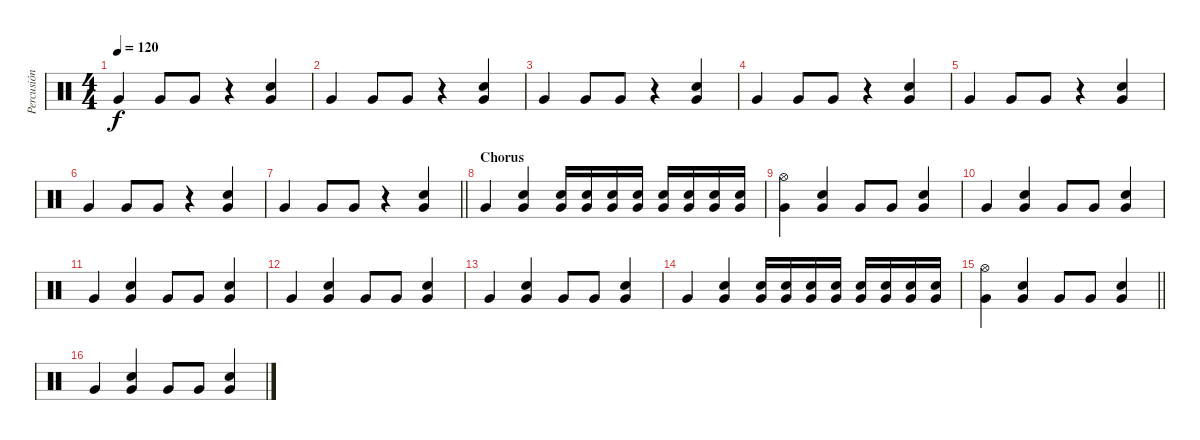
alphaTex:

\track ("Percusión" "Percusión") {instrument percussion}
\staff {score}
\articulation defaults
\ts (4 4)
\tempo 120
\clef neutral
\ks c "Very Low Tom (hit)".4{dy f} "Very Low Tom (hit)".8 "Very Low Tom (hit)".8
r.4 ("Very Low Tom (hit)" "Electric Snare (hit)").4 |
"Very Low Tom (hit)".4 "Very Low Tom (hit)".8 "Very Low Tom (hit)".8 r.4 ("Very Low Tom (hit)" "Electric Snare (hit)").4 |
"Very Low Tom (hit)".4 "Very Low Tom (hit)".8 "Very Low Tom (hit)".8 r.4 ("Very Low Tom (hit)" "Electric Snare (hit)").4 |
"Very Low Tom (hit)".4 "Very Low Tom (hit)".8 "Very Low Tom (hit)".8 r.4 ("Very Low Tom (hit)" "Electric Snare (hit)").4 |
"Very Low Tom (hit)".4 "Very Low Tom (hit)".8 "Very Low Tom (hit)".8 r.4 ("Very Low Tom (hit)" "Electric Snare (hit)").4 |
"Very Low Tom (hit)".4 "Very Low Tom (hit)".8 "Very Low Tom (hit)".8 r.4 ("Very Low Tom (hit)" "Electric Snare (hit)").4 |
\barLineRight lightlight "Very Low Tom (hit)".4 "Very Low Tom (hit)".8 "Very Low Tom (hit)".8
r.4 ("Very Low Tom (hit)" "Electric Snare (hit)").4 |
\section ("" "Chorus")
"Very Low Tom (hit)".4 ("Electric Snare (hit)" "Very Low Tom (hit)").4 ("Electric Snare (hit)" "Very Low Tom (hit)").16 ("Electric Snare (hit)" "Very Low Tom (hit)").16 ("Electric Snare (hit)" "Very Low Tom (hit)").16 ("Electric Snare (hit)" "Very Low Tom (hit)").16 ("Electric Snare (hit)" "Very Low Tom (hit)").16 ("Electric Snare (hit)" "Very Low Tom (hit)").16 ("Electric Snare (hit)" "Very Low Tom (hit)").16 ("Electric Snare (hit)" "Very Low Tom (hit)").16 |
("Very Low Tom (hit)" "Hi-Hat (open)").4 ("Electric Snare (hit)" "Very Low Tom (hit)").4 "Very Low Tom (hit)".8 "Very Low Tom (hit)".8 ("Electric Snare (hit)" "Very Low Tom (hit)").4 |
"Very Low Tom (hit)".4 ("Electric Snare (hit)" "Very Low Tom (hit)").4 "Very Low Tom (hit)".8 "Very Low Tom (hit)".8 ("Electric Snare (hit)" "Very Low Tom (hit)").4 |
"Very Low Tom (hit)".4 ("Electric Snare (hit)" "Very Low Tom (hit)").4 "Very Low Tom (hit)".8 "Very Low Tom (hit)".8 ("Electric Snare (hit)" "Very Low Tom (hit)").4 |
"Very Low Tom (hit)".4 ("Electric Snare (hit)" "Very Low Tom (hit)").4 "Very Low Tom (hit)".8 "Very Low Tom (hit)".8 ("Electric Snare (hit)" "Very Low Tom (hit)").4 |
"Very Low Tom (hit)".4 ("Electric Snare (hit)" "Very Low Tom (hit)").4 "Very Low Tom (hit)".8 "Very Low Tom (hit)".8 ("Electric Snare (hit)" "Very Low Tom (hit)").4 |
"Very Low Tom (hit)".4 ("Electric Snare (hit)" "Very Low Tom (hit)").4 ("Electric Snare (hit)" "Very Low Tom (hit)").16 ("Electric Snare (hit)" "Very Low Tom (hit)").16 ("Electric Snare (hit)" "Very Low Tom (hit)").16 ("Electric Snare (hit)" "Very Low Tom (hit)").16 ("Electric Snare (hit)" "Very Low Tom (hit)").16 ("Electric Snare (hit)" "Very Low Tom (hit)").16 ("Electric Snare (hit)" "Very Low Tom (hit)").16 ("Electric Snare (hit)" "Very Low Tom (hit)").16 |
\barLineRight lightlight
("Very Low Tom (hit)" "Hi-Hat (open)").4 ("Electric Snare (hit)" "Very Low Tom (hit)").4 "Very Low Tom (hit)".8 "Very Low Tom (hit)".8 ("Electric Snare (hit)" "Very Low Tom (hit)").4 |
"Very Low Tom (hit)".4 ("Electric Snare (hit)" "Very Low Tom (hit)").4 "Very Low Tom (hit)".8 "Very Low Tom (hit)".8 ("Electric Snare (hit)" "Very Low Tom (hit)").4
